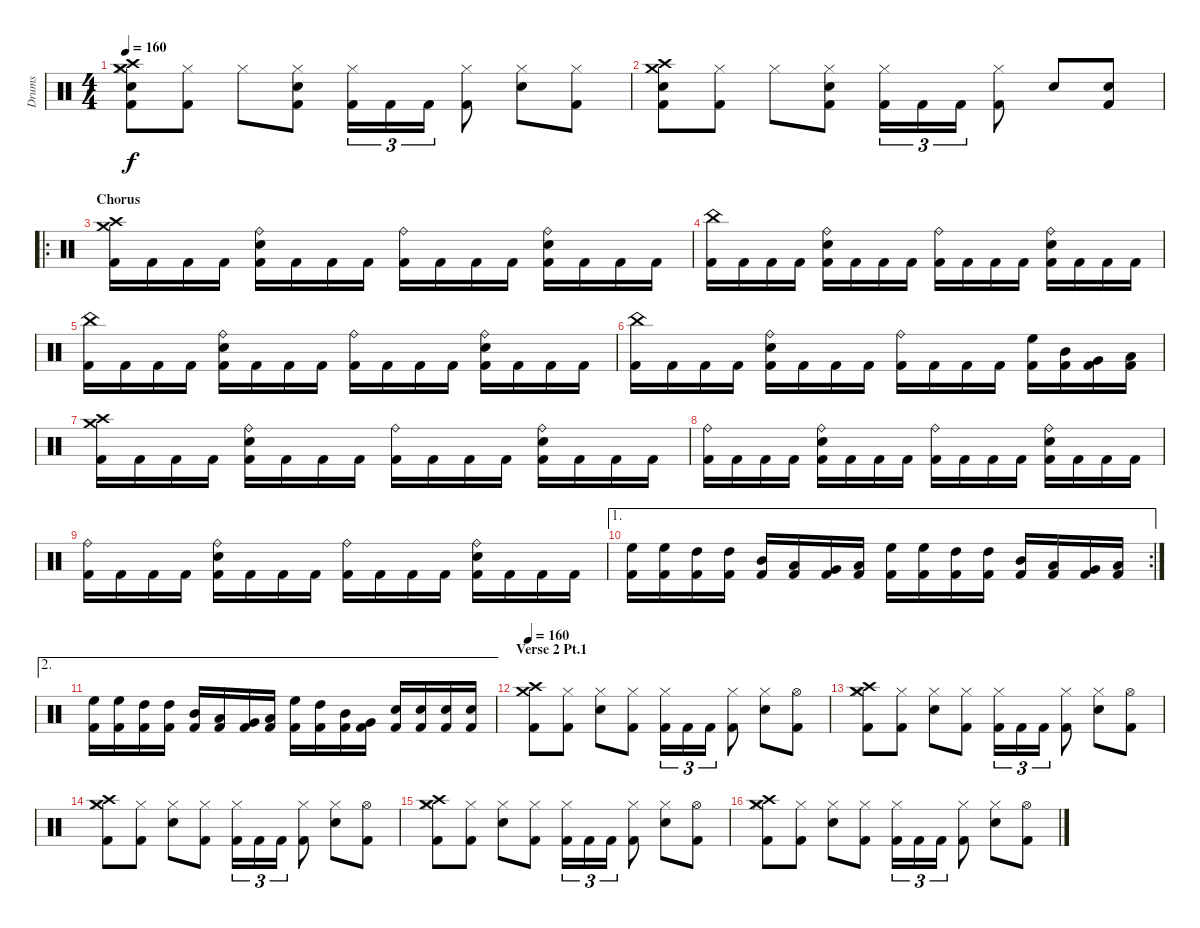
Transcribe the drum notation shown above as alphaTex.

\track ("Drums" "Drums") {instrument percussion}
\staff {score}
\articulation defaults
\ts (4 4)
\tempo 160
\clef neutral
\ks c
("Crash medium (hit)" "Crash high (hit)" "Hi-Hat (closed)" "Electric Snare (hit)" "Kick (hit) 2").8{dy f} ("Hi-Hat (closed)" "Kick (hit) 2").8 "Hi-Hat (closed)".8 ("Hi-Hat (closed)" "Electric Snare (hit)" "Kick (hit) 2").8 ("Hi-Hat (closed)" "Kick (hit) 2").16{tu (3 2)} "Kick (hit) 2".16{tu (3 2)} "Kick (hit) 2".16{tu (3 2)} ("Hi-Hat (closed)" "Kick (hit) 2").8 ("Hi-Hat (closed)" "Electric Snare (hit)").8 ("Hi-Hat (closed)" "Kick (hit) 2").8 |
("Crash medium (hit)" "Crash high (hit)" "Electric Snare (hit)" "Kick (hit) 2").8 ("Hi-Hat (closed)" "Kick (hit) 2").8 "Hi-Hat (closed)".8 ("Hi-Hat (closed)" "Electric Snare (hit)" "Kick (hit) 2").8 ("Hi-Hat (closed)" "Kick (hit) 2").16{tu (3 2)} "Kick (hit) 2".16{tu (3 2)} "Kick (hit) 2".16{tu (3 2)} ("Hi-Hat (closed)" "Kick (hit) 2").8 "Electric Snare (hit)".8 ("Electric Snare (hit)" "Kick (hit) 2").8 |
\ro
\section ("" "Chorus")
("Crash medium (hit)" "Crash high (hit)" "Kick (hit) 2").16{volume 16} "Kick (hit) 2".16 "Kick (hit) 2".16 "Kick (hit) 2".16 ("Ride (bell)" "Electric Snare (hit)" "Kick (hit) 2").16 "Kick (hit) 2".16 "Kick (hit) 2".16 "Kick (hit) 2".16 ("Ride (bell)" "Kick (hit) 2").16 "Kick (hit) 2".16 "Kick (hit) 2".16 "Kick (hit) 2".16 ("Ride (bell)" "Electric Snare (hit)" "Kick (hit) 2").16 "Kick (hit) 2".16 "Kick (hit) 2".16 "Kick (hit) 2".16 |
("China (hit)" "Kick (hit) 2").16 "Kick (hit) 2".16 "Kick (hit) 2".16 "Kick (hit) 2".16 ("Ride (bell)" "Electric Snare (hit)" "Kick (hit) 2").16 "Kick (hit) 2".16 "Kick (hit) 2".16 "Kick (hit) 2".16 ("Ride (bell)" "Kick (hit) 2").16 "Kick (hit) 2".16 "Kick (hit) 2".16 "Kick (hit) 2".16 ("Ride (bell)" "Electric Snare (hit)" "Kick (hit) 2").16 "Kick (hit) 2".16 "Kick (hit) 2".16 "Kick (hit) 2".16 |
("China (hit)" "Kick (hit) 2").16 "Kick (hit) 2".16 "Kick (hit) 2".16 "Kick (hit) 2".16 ("Ride (bell)" "Electric Snare (hit)" "Kick (hit) 2").16 "Kick (hit) 2".16 "Kick (hit) 2".16 "Kick (hit) 2".16 ("Ride (bell)" "Kick (hit) 2").16 "Kick (hit) 2".16 "Kick (hit) 2".16 "Kick (hit) 2".16 ("Ride (bell)" "Electric Snare (hit)" "Kick (hit) 2").16 "Kick (hit) 2".16 "Kick (hit) 2".16 "Kick (hit) 2".16 |
("China (hit)" "Kick (hit) 2").16 "Kick (hit) 2".16 "Kick (hit) 2".16 "Kick (hit) 2".16 ("Ride (bell)" "Electric Snare (hit)" "Kick (hit) 2").16 "Kick (hit) 2".16 "Kick (hit) 2".16 "Kick (hit) 2".16 ("Ride (bell)" "Kick (hit) 2").16 "Kick (hit) 2".16 "Kick (hit) 2".16 "Kick (hit) 2".16 ("High Floor Tom (hit)" "Kick (hit) 2").16 ("Mid Tom (hit)" "Kick (hit) 2").16 ("Very Low Tom (hit)" "Kick (hit) 2").16 ("Low Floor Tom (hit)" "Kick (hit) 2").16 |
("Crash medium (hit)" "Crash high (hit)" "Kick (hit) 2").16{volume 16} "Kick (hit) 2".16 "Kick (hit) 2".16 "Kick (hit) 2".16 ("Ride (bell)" "Electric Snare (hit)" "Kick (hit) 2").16 "Kick (hit) 2".16 "Kick (hit) 2".16 "Kick (hit) 2".16 ("Ride (bell)" "Kick (hit) 2").16 "Kick (hit) 2".16 "Kick (hit) 2".16 "Kick (hit) 2".16 ("Ride (bell)" "Electric Snare (hit)" "Kick (hit) 2").16 "Kick (hit) 2".16 "Kick (hit) 2".16 "Kick (hit) 2".16 |
("Ride (bell)" "Kick (hit) 2").16 "Kick (hit) 2".16 "Kick (hit) 2".16 "Kick (hit) 2".16 ("Ride (bell)" "Electric Snare (hit)" "Kick (hit) 2").16 "Kick (hit) 2".16 "Kick (hit) 2".16 "Kick (hit) 2".16 ("Ride (bell)" "Kick (hit) 2").16 "Kick (hit) 2".16 "Kick (hit) 2".16 "Kick (hit) 2".16 ("Ride (bell)" "Electric Snare (hit)" "Kick (hit) 2").16 "Kick (hit) 2".16 "Kick (hit) 2".16 "Kick (hit) 2".16 |
("Ride (bell)" "Kick (hit) 2").16 "Kick (hit) 2".16 "Kick (hit) 2".16 "Kick (hit) 2".16 ("Ride (bell)" "Electric Snare (hit)" "Kick (hit) 2").16 "Kick (hit) 2".16 "Kick (hit) 2".16 "Kick (hit) 2".16 ("Ride (bell)" "Kick (hit) 2").16 "Kick (hit) 2".16 "Kick (hit) 2".16 "Kick (hit) 2".16 ("Ride (bell)" "Electric Snare (hit)" "Kick (hit) 2").16 "Kick (hit) 2".16 "Kick (hit) 2".16 "Kick (hit) 2".16 |
\ae 1
\rc 2
("High Floor Tom (hit)" "Kick (hit) 2").16 ("High Floor Tom (hit)" "Kick (hit) 2").16 ("High Tom (hit)" "Kick (hit) 2").16 ("High Tom (hit)" "Kick (hit) 2").16 ("Mid Tom (hit)" "Kick (hit) 2").16 ("Low Tom (hit)" "Kick (hit) 2").16 ("Very Low Tom (hit)" "Kick (hit) 2").16 ("Low Floor Tom (hit)" "Kick (hit) 2").16 ("High Floor Tom (hit)" "Kick (hit) 2").16 ("High Floor Tom (hit)" "Kick (hit) 2").16 ("High Tom (hit)" "Kick (hit) 2").16 ("High Tom (hit)" "Kick (hit) 2").16 ("Mid Tom (hit)" "Kick (hit) 2").16 ("Low Tom (hit)" "Kick (hit) 2").16 ("Very Low Tom (hit)" "Kick (hit) 2").16 ("Low Floor Tom (hit)" "Kick (hit) 2").16 |
\ae 2
("High Floor Tom (hit)" "Kick (hit) 2").16 ("High Floor Tom (hit)" "Kick (hit) 2").16 ("High Tom (hit)" "Kick (hit) 2").16 ("High Tom (hit)" "Kick (hit) 2").16 ("Mid Tom (hit)" "Kick (hit) 2").16 ("Low Tom (hit)" "Kick (hit) 2").16 ("Very Low Tom (hit)" "Kick (hit) 2").16 ("Low Floor Tom (hit)" "Kick (hit) 2").16 ("High Floor Tom (hit)" "Kick (hit) 2").16 ("High Tom (hit)" "Kick (hit) 2").16 ("Mid Tom (hit)" "Kick (hit) 2").16 ("Very Low Tom (hit)" "Kick (hit) 2").16 ("Electric Snare (hit)" "Kick (hit) 2").16 ("Electric Snare (hit)" "Kick (hit) 2").16 ("Electric Snare (hit)" "Kick (hit) 2").16 ("Electric Snare (hit)" "Kick (hit) 2").16 |
\section ("" "Verse 2 Pt.1")
\tempo 160
("Crash medium (hit)" "Crash high (hit)" "Kick (hit) 2").8 ("Hi-Hat (closed)" "Kick (hit) 2").8 ("Hi-Hat (closed)" "Electric Snare (hit)").8 ("Hi-Hat (closed)" "Kick (hit) 2").8 ("Hi-Hat (closed)" "Kick (hit) 2").16{tu (3 2)} "Kick (hit) 2".16{tu (3 2)} "Kick (hit) 2".16{tu (3 2)} ("Hi-Hat (closed)" "Kick (hit) 2").8 ("Hi-Hat (closed)" "Electric Snare (hit)").8 ("Hi-Hat (open)" "Kick (hit) 2").8 |
("Crash medium (hit)" "Crash high (hit)" "Hi-Hat (closed)" "Kick (hit) 2").8 ("Hi-Hat (closed)" "Kick (hit) 2").8 ("Hi-Hat (closed)" "Electric Snare (hit)").8 ("Hi-Hat (closed)" "Kick (hit) 2").8 ("Hi-Hat (closed)" "Kick (hit) 2").16{tu (3 2)} "Kick (hit) 2".16{tu (3 2)} "Kick (hit) 2".16{tu (3 2)} ("Hi-Hat (closed)" "Kick (hit) 2").8 ("Hi-Hat (closed)" "Electric Snare (hit)").8 ("Hi-Hat (open)" "Kick (hit) 2").8 |
("Crash medium (hit)" "Crash high (hit)" "Hi-Hat (closed)" "Kick (hit) 2").8 ("Hi-Hat (closed)" "Kick (hit) 2").8 ("Hi-Hat (closed)" "Electric Snare (hit)").8 ("Hi-Hat (closed)" "Kick (hit) 2").8 ("Hi-Hat (closed)" "Kick (hit) 2").16{tu (3 2)} "Kick (hit) 2".16{tu (3 2)} "Kick (hit) 2".16{tu (3 2)} ("Hi-Hat (closed)" "Kick (hit) 2").8 ("Hi-Hat (closed)" "Electric Snare (hit)").8 ("Hi-Hat (open)" "Kick (hit) 2").8 |
("Crash medium (hit)" "Crash high (hit)" "Hi-Hat (closed)" "Kick (hit) 2").8 ("Hi-Hat (closed)" "Kick (hit) 2").8 ("Hi-Hat (closed)" "Electric Snare (hit)").8 ("Hi-Hat (closed)" "Kick (hit) 2").8 ("Hi-Hat (closed)" "Kick (hit) 2").16{tu (3 2)} "Kick (hit) 2".16{tu (3 2)} "Kick (hit) 2".16{tu (3 2)} ("Hi-Hat (closed)" "Kick (hit) 2").8 ("Hi-Hat (closed)" "Electric Snare (hit)").8 ("Hi-Hat (open)" "Kick (hit) 2").8 |
("Crash medium (hit)" "Crash high (hit)" "Hi-Hat (closed)" "Kick (hit) 2").8 ("Hi-Hat (closed)" "Kick (hit) 2").8 ("Hi-Hat (closed)" "Electric Snare (hit)").8 ("Hi-Hat (closed)" "Kick (hit) 2").8 ("Hi-Hat (closed)" "Kick (hit) 2").16{tu (3 2)} "Kick (hit) 2".16{tu (3 2)} "Kick (hit) 2".16{tu (3 2)} ("Hi-Hat (closed)" "Kick (hit) 2").8 ("Hi-Hat (closed)" "Electric Snare (hit)").8 ("Hi-Hat (open)" "Kick (hit) 2").8
